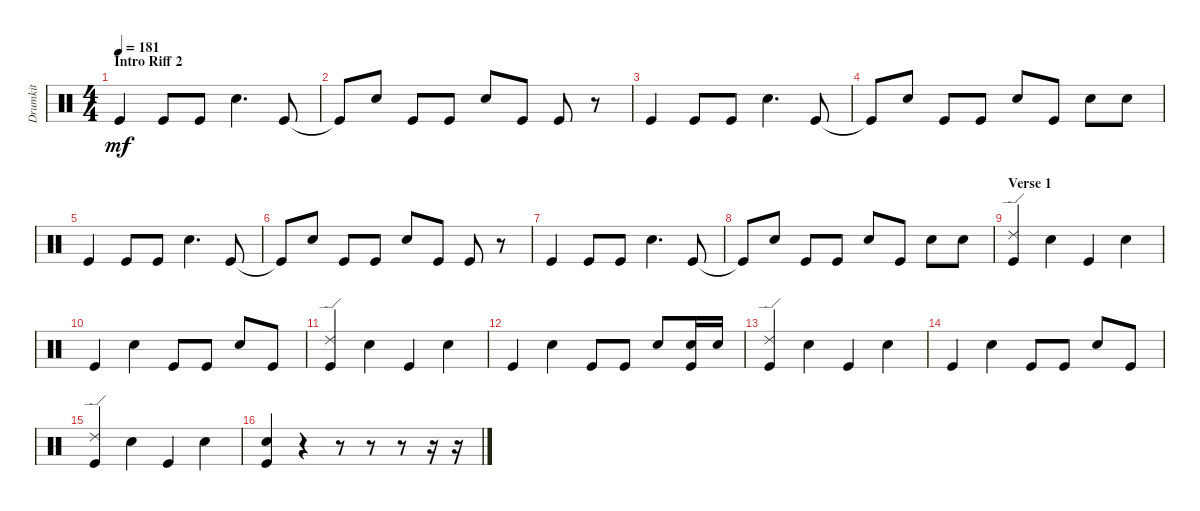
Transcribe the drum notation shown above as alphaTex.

\track ("Drumkit" "Drumkit") {instrument percussion}
\staff {score}
\articulation defaults
\ts (4 4)
\section ("" "Intro Riff 2")
\tempo 181
\clef neutral
\ks c "Kick (hit)".4{dy mf} "Kick (hit)".8 "Kick (hit)".8 "Snare (hit) 2".4{d} "Kick (hit)".8
|
"Kick (hit)"{t}.8 "Snare (hit) 2".8 "Kick (hit)".8 "Kick (hit)".8 "Snare (hit) 2".8 "Kick (hit)".8 "Kick (hit)".8 r.8 |
"Kick (hit)".4 "Kick (hit)".8 "Kick (hit)".8 "Snare (hit) 2".4{d} "Kick (hit)".8 |
"Kick (hit)"{t}.8 "Snare (hit) 2".8 "Kick (hit)".8 "Kick (hit)".8 "Snare (hit) 2".8 "Kick (hit)".8 "Snare (hit) 2".8 "Snare (hit) 2".8 |
"Kick (hit)".4 "Kick (hit)".8 "Kick (hit)".8 "Snare (hit) 2".4{d} "Kick (hit)".8 |
"Kick (hit)"{t}.8 "Snare (hit) 2".8 "Kick (hit)".8 "Kick (hit)".8 "Snare (hit) 2".8 "Kick (hit)".8 "Kick (hit)".8 r.8 |
"Kick (hit)".4 "Kick (hit)".8 "Kick (hit)".8 "Snare (hit) 2".4{d} "Kick (hit)".8 |
"Kick (hit)"{t}.8 "Snare (hit) 2".8 "Kick (hit)".8 "Kick (hit)".8 "Snare (hit) 2".8 "Kick (hit)".8 "Snare (hit) 2".8 "Snare (hit) 2".8 |
\section ("" "Verse 1")
("Kick (hit)" "Ride (edge) 2").4 "Snare (hit) 2".4 "Kick (hit)".4 "Snare (hit) 2".4 |
"Kick (hit)".4 "Snare (hit) 2".4 "Kick (hit)".8 "Kick (hit)".8 "Snare (hit) 2".8 "Kick (hit)".8 |
("Kick (hit)" "Ride (edge) 2").4 "Snare (hit) 2".4 "Kick (hit)".4 "Snare (hit) 2".4 |
"Kick (hit)".4 "Snare (hit) 2".4 "Kick (hit)".8 "Kick (hit)".8 "Snare (hit) 2".8 ("Kick (hit)" "Snare (hit) 2").16 "Snare (hit) 2".16 |
("Kick (hit)" "Ride (edge) 2").4 "Snare (hit) 2".4 "Kick (hit)".4 "Snare (hit) 2".4 |
"Kick (hit)".4 "Snare (hit) 2".4 "Kick (hit)".8 "Kick (hit)".8 "Snare (hit) 2".8 "Kick (hit)".8 |
("Kick (hit)" "Ride (edge) 2").4 "Snare (hit) 2".4 "Kick (hit)".4 "Snare (hit) 2".4 |
("Kick (hit)" "Snare (hit) 2").4 r.4 r.8 r.8 r.8 r.16 r.16
